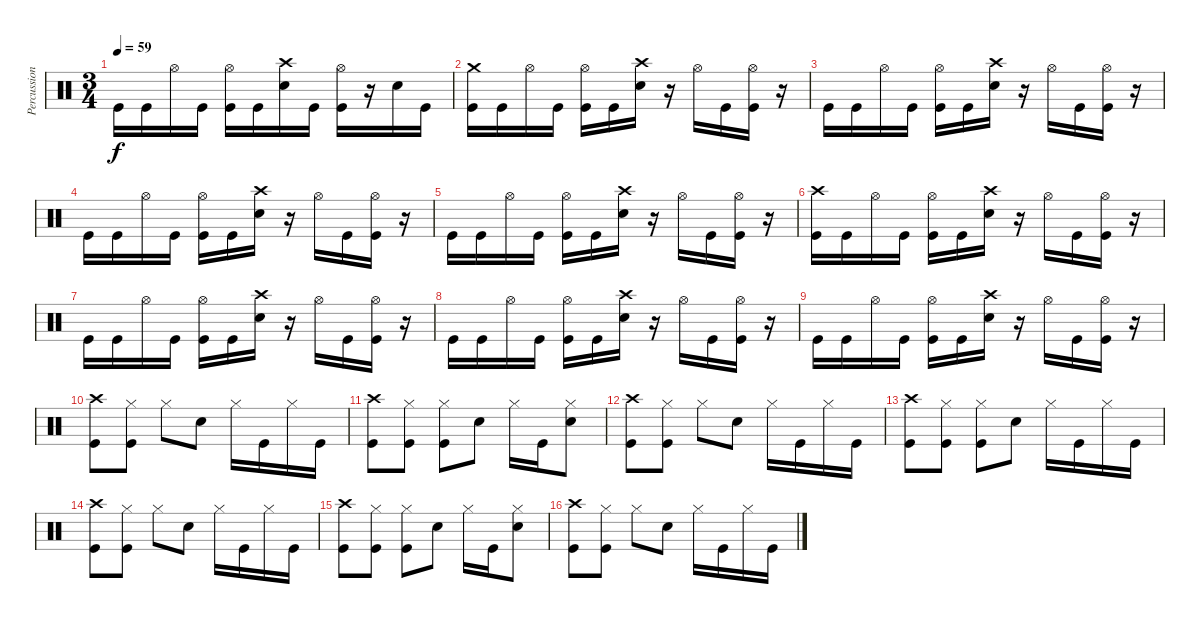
\track ("Percussion" "Percussion") {instrument percussion}
\staff {score}
\articulation defaults
\ts (3 4)
\tempo 59
\clef neutral
\ks c "Kick (hit)".16{dy f} "Kick (hit)".16 "Hi-Hat (open)".16 "Kick (hit)".16
("Hi-Hat (open)" "Kick (hit)").16 "Kick (hit)".16 ("Crash high (hit)" "Electric Snare (hit)").16 "Kick (hit)".16 ("Hi-Hat (open)" "Kick (hit)").16 r.16 "Electric Snare (hit)".16 "Kick (hit)".16 |
("Crash medium (hit)" "Kick (hit)").16 "Kick (hit)".16 "Hi-Hat (open)".16 "Kick (hit)".16 ("Hi-Hat (open)" "Kick (hit)").16 "Kick (hit)".16 ("Crash high (hit)" "Electric Snare (hit)").16 r.16 "Hi-Hat (open)".16 "Kick (hit)".16 ("Hi-Hat (open)" "Kick (hit)").16 r.16 |
"Kick (hit)".16 "Kick (hit)".16 "Hi-Hat (open)".16 "Kick (hit)".16 ("Hi-Hat (open)" "Kick (hit)").16 "Kick (hit)".16 ("Crash high (hit)" "Electric Snare (hit)").16 r.16 "Hi-Hat (open)".16 "Kick (hit)".16 ("Hi-Hat (open)" "Kick (hit)").16 r.16 |
"Kick (hit)".16 "Kick (hit)".16 "Hi-Hat (open)".16 "Kick (hit)".16 ("Hi-Hat (open)" "Kick (hit)").16 "Kick (hit)".16 ("Crash high (hit)" "Electric Snare (hit)").16 r.16 "Hi-Hat (open)".16 "Kick (hit)".16 ("Hi-Hat (open)" "Kick (hit)").16 r.16 |
"Kick (hit)".16 "Kick (hit)".16 "Hi-Hat (open)".16 "Kick (hit)".16 ("Hi-Hat (open)" "Kick (hit)").16 "Kick (hit)".16 ("Crash high (hit)" "Electric Snare (hit)").16 r.16 "Hi-Hat (open)".16 "Kick (hit)".16 ("Hi-Hat (open)" "Kick (hit)").16 r.16 |
("Crash high (hit)" "Kick (hit)").16 "Kick (hit)".16 "Hi-Hat (open)".16 "Kick (hit)".16 ("Hi-Hat (open)" "Kick (hit)").16 "Kick (hit)".16 ("Crash high (hit)" "Electric Snare (hit)").16 r.16 "Hi-Hat (open)".16 "Kick (hit)".16 ("Hi-Hat (open)" "Kick (hit)").16 r.16 |
"Kick (hit)".16 "Kick (hit)".16 "Hi-Hat (open)".16 "Kick (hit)".16 ("Hi-Hat (open)" "Kick (hit)").16 "Kick (hit)".16 ("Crash high (hit)" "Electric Snare (hit)").16 r.16 "Hi-Hat (open)".16 "Kick (hit)".16 ("Hi-Hat (open)" "Kick (hit)").16 r.16 |
"Kick (hit)".16 "Kick (hit)".16 "Hi-Hat (open)".16 "Kick (hit)".16 ("Hi-Hat (open)" "Kick (hit)").16 "Kick (hit)".16 ("Crash high (hit)" "Electric Snare (hit)").16 r.16 "Hi-Hat (open)".16 "Kick (hit)".16 ("Hi-Hat (open)" "Kick (hit)").16 r.16 |
"Kick (hit)".16 "Kick (hit)".16 "Hi-Hat (open)".16 "Kick (hit)".16 ("Hi-Hat (open)" "Kick (hit)").16 "Kick (hit)".16 ("Crash high (hit)" "Electric Snare (hit)").16 r.16 "Hi-Hat (open)".16 "Kick (hit)".16 ("Hi-Hat (open)" "Kick (hit)").16 r.16 |
("Crash high (hit)" "Kick (hit)").8 ("Hi-Hat (closed)" "Kick (hit)").8 "Hi-Hat (closed)".8 "Electric Snare (hit)".8 "Hi-Hat (closed)".16 "Kick (hit)".16 "Hi-Hat (closed)".16 "Kick (hit)".16 |
("Crash high (hit)" "Kick (hit)").8 ("Hi-Hat (closed)" "Kick (hit)").8 ("Hi-Hat (closed)" "Kick (hit)").8 "Electric Snare (hit)".8 "Hi-Hat (closed)".16 "Kick (hit)".16 ("Hi-Hat (closed)" "Electric Snare (hit)").8 |
("Crash high (hit)" "Kick (hit)").8 ("Hi-Hat (closed)" "Kick (hit)").8 "Hi-Hat (closed)".8 "Electric Snare (hit)".8 "Hi-Hat (closed)".16 "Kick (hit)".16 "Hi-Hat (closed)".16 "Kick (hit)".16 |
("Crash high (hit)" "Kick (hit)").8 ("Hi-Hat (closed)" "Kick (hit)").8 ("Hi-Hat (closed)" "Kick (hit)").8 "Electric Snare (hit)".8 "Hi-Hat (closed)".16 "Kick (hit)".16 "Hi-Hat (closed)".16 "Kick (hit)".16 |
("Crash high (hit)" "Kick (hit)").8 ("Hi-Hat (closed)" "Kick (hit)").8 "Hi-Hat (closed)".8 "Electric Snare (hit)".8 "Hi-Hat (closed)".16 "Kick (hit)".16 "Hi-Hat (closed)".16 "Kick (hit)".16 |
("Crash high (hit)" "Kick (hit)").8 ("Hi-Hat (closed)" "Kick (hit)").8 ("Hi-Hat (closed)" "Kick (hit)").8 "Electric Snare (hit)".8 "Hi-Hat (closed)".16 "Kick (hit)".16 ("Hi-Hat (closed)" "Electric Snare (hit)").8 |
("Crash high (hit)" "Kick (hit)").8 ("Hi-Hat (closed)" "Kick (hit)").8 "Hi-Hat (closed)".8 "Electric Snare (hit)".8 "Hi-Hat (closed)".16 "Kick (hit)".16 "Hi-Hat (closed)".16 "Kick (hit)".16
